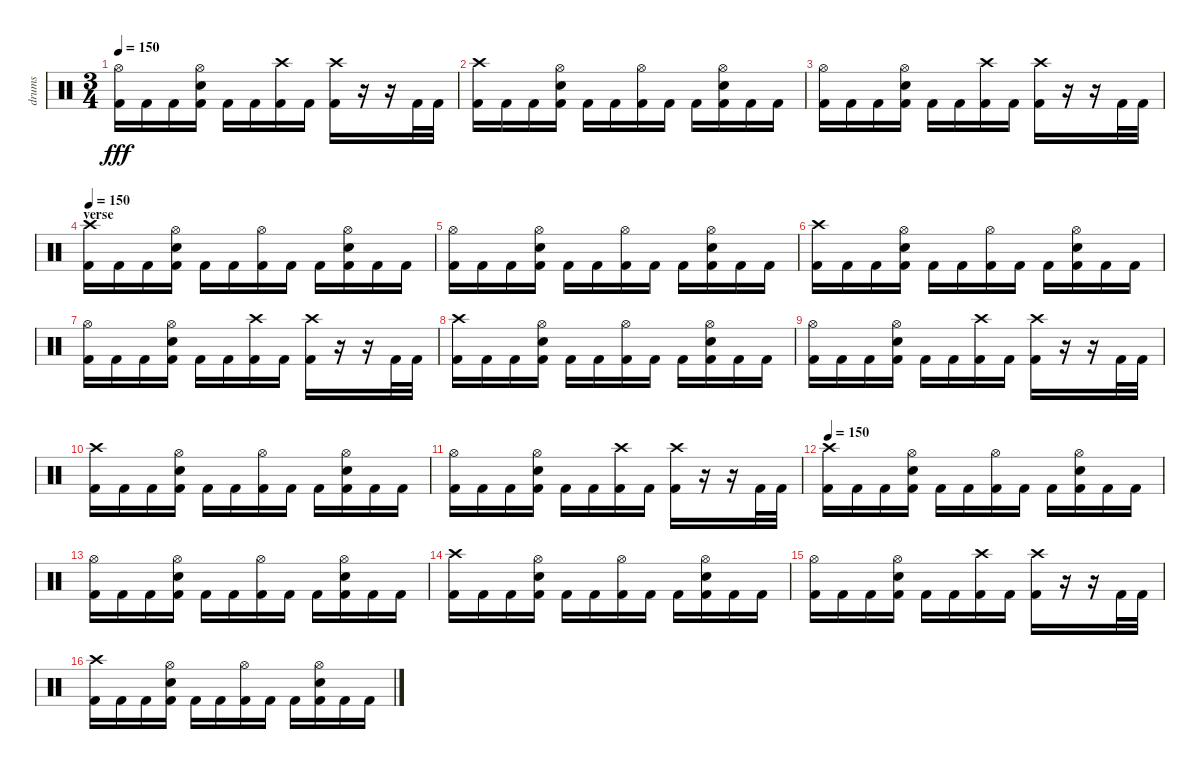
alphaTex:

\track ("drums" "drums") {instrument percussion}
\staff {score}
\articulation defaults
\ts (3 4)
\tempo 150
\clef neutral
\ks c
("Hi-Hat (open)" "Kick (hit) 2").16{dy fff} "Kick (hit) 2".16 "Kick (hit) 2".16 ("Hi-Hat (open)" "Snare (hit) 2" "Kick (hit) 2").16 "Kick (hit) 2".16 "Kick (hit) 2".16 ("Crash high (hit)" "Kick (hit) 2").16 "Kick (hit) 2".16 ("Crash high (hit)" "Kick (hit) 2").16 r.16 r.16 "Kick (hit) 2".32 "Kick (hit) 2".32 |
("Crash high (hit)" "Kick (hit) 2").16 "Kick (hit) 2".16 "Kick (hit) 2".16 ("Hi-Hat (open)" "Snare (hit) 2" "Kick (hit) 2").16 "Kick (hit) 2".16 "Kick (hit) 2".16 ("Hi-Hat (open)" "Kick (hit) 2").16 "Kick (hit) 2".16 "Kick (hit) 2".16 ("Hi-Hat (open)" "Snare (hit) 2" "Kick (hit) 2").16 "Kick (hit) 2".16 "Kick (hit) 2".16 |
("Hi-Hat (open)" "Kick (hit) 2").16 "Kick (hit) 2".16 "Kick (hit) 2".16 ("Hi-Hat (open)" "Snare (hit) 2" "Kick (hit) 2").16 "Kick (hit) 2".16 "Kick (hit) 2".16 ("Crash high (hit)" "Kick (hit) 2").16 "Kick (hit) 2".16 ("Crash high (hit)" "Kick (hit) 2").16 r.16 r.16 "Kick (hit) 2".32 "Kick (hit) 2".32 |
\section ("" "verse")
\tempo 150
("Crash high (hit)" "Kick (hit) 2").16 "Kick (hit) 2".16 "Kick (hit) 2".16 ("Hi-Hat (open)" "Snare (hit) 2" "Kick (hit) 2").16 "Kick (hit) 2".16 "Kick (hit) 2".16 ("Hi-Hat (open)" "Kick (hit) 2").16 "Kick (hit) 2".16 "Kick (hit) 2".16 ("Hi-Hat (open)" "Snare (hit) 2" "Kick (hit) 2").16 "Kick (hit) 2".16 "Kick (hit) 2".16 |
("Hi-Hat (open)" "Kick (hit) 2").16 "Kick (hit) 2".16 "Kick (hit) 2".16 ("Hi-Hat (open)" "Snare (hit) 2" "Kick (hit) 2").16 "Kick (hit) 2".16 "Kick (hit) 2".16 ("Hi-Hat (open)" "Kick (hit) 2").16 "Kick (hit) 2".16 "Kick (hit) 2".16 ("Hi-Hat (open)" "Snare (hit) 2" "Kick (hit) 2").16 "Kick (hit) 2".16 "Kick (hit) 2".16 |
("Crash high (hit)" "Kick (hit) 2").16 "Kick (hit) 2".16 "Kick (hit) 2".16 ("Hi-Hat (open)" "Snare (hit) 2" "Kick (hit) 2").16 "Kick (hit) 2".16 "Kick (hit) 2".16 ("Hi-Hat (open)" "Kick (hit) 2").16 "Kick (hit) 2".16 "Kick (hit) 2".16 ("Hi-Hat (open)" "Snare (hit) 2" "Kick (hit) 2").16 "Kick (hit) 2".16 "Kick (hit) 2".16 |
("Hi-Hat (open)" "Kick (hit) 2").16 "Kick (hit) 2".16 "Kick (hit) 2".16 ("Hi-Hat (open)" "Snare (hit) 2" "Kick (hit) 2").16 "Kick (hit) 2".16 "Kick (hit) 2".16 ("Crash high (hit)" "Kick (hit) 2").16 "Kick (hit) 2".16 ("Crash high (hit)" "Kick (hit) 2").16 r.16 r.16 "Kick (hit) 2".32 "Kick (hit) 2".32 |
("Crash high (hit)" "Kick (hit) 2").16 "Kick (hit) 2".16 "Kick (hit) 2".16 ("Hi-Hat (open)" "Snare (hit) 2" "Kick (hit) 2").16 "Kick (hit) 2".16 "Kick (hit) 2".16 ("Hi-Hat (open)" "Kick (hit) 2").16 "Kick (hit) 2".16 "Kick (hit) 2".16 ("Hi-Hat (open)" "Snare (hit) 2" "Kick (hit) 2").16 "Kick (hit) 2".16 "Kick (hit) 2".16 |
("Hi-Hat (open)" "Kick (hit) 2").16 "Kick (hit) 2".16 "Kick (hit) 2".16 ("Hi-Hat (open)" "Snare (hit) 2" "Kick (hit) 2").16 "Kick (hit) 2".16 "Kick (hit) 2".16 ("Crash high (hit)" "Kick (hit) 2").16 "Kick (hit) 2".16 ("Crash high (hit)" "Kick (hit) 2").16 r.16 r.16 "Kick (hit) 2".32 "Kick (hit) 2".32 |
("Crash high (hit)" "Kick (hit) 2").16 "Kick (hit) 2".16 "Kick (hit) 2".16 ("Hi-Hat (open)" "Snare (hit) 2" "Kick (hit) 2").16 "Kick (hit) 2".16 "Kick (hit) 2".16 ("Hi-Hat (open)" "Kick (hit) 2").16 "Kick (hit) 2".16 "Kick (hit) 2".16 ("Hi-Hat (open)" "Snare (hit) 2" "Kick (hit) 2").16 "Kick (hit) 2".16 "Kick (hit) 2".16 |
("Hi-Hat (open)" "Kick (hit) 2").16 "Kick (hit) 2".16 "Kick (hit) 2".16 ("Hi-Hat (open)" "Snare (hit) 2" "Kick (hit) 2").16 "Kick (hit) 2".16 "Kick (hit) 2".16 ("Crash high (hit)" "Kick (hit) 2").16 "Kick (hit) 2".16 ("Crash high (hit)" "Kick (hit) 2").16 r.16 r.16 "Kick (hit) 2".32 "Kick (hit) 2".32 |
\tempo 150
("Crash high (hit)" "Kick (hit) 2").16 "Kick (hit) 2".16 "Kick (hit) 2".16 ("Hi-Hat (open)" "Snare (hit) 2" "Kick (hit) 2").16 "Kick (hit) 2".16 "Kick (hit) 2".16 ("Hi-Hat (open)" "Kick (hit) 2").16 "Kick (hit) 2".16 "Kick (hit) 2".16 ("Hi-Hat (open)" "Snare (hit) 2" "Kick (hit) 2").16 "Kick (hit) 2".16 "Kick (hit) 2".16 |
("Hi-Hat (open)" "Kick (hit) 2").16 "Kick (hit) 2".16 "Kick (hit) 2".16 ("Hi-Hat (open)" "Snare (hit) 2" "Kick (hit) 2").16 "Kick (hit) 2".16 "Kick (hit) 2".16 ("Hi-Hat (open)" "Kick (hit) 2").16 "Kick (hit) 2".16 "Kick (hit) 2".16 ("Hi-Hat (open)" "Snare (hit) 2" "Kick (hit) 2").16 "Kick (hit) 2".16 "Kick (hit) 2".16 |
("Crash high (hit)" "Kick (hit) 2").16 "Kick (hit) 2".16 "Kick (hit) 2".16 ("Hi-Hat (open)" "Snare (hit) 2" "Kick (hit) 2").16 "Kick (hit) 2".16 "Kick (hit) 2".16 ("Hi-Hat (open)" "Kick (hit) 2").16 "Kick (hit) 2".16 "Kick (hit) 2".16 ("Hi-Hat (open)" "Snare (hit) 2" "Kick (hit) 2").16 "Kick (hit) 2".16 "Kick (hit) 2".16 |
("Hi-Hat (open)" "Kick (hit) 2").16 "Kick (hit) 2".16 "Kick (hit) 2".16 ("Hi-Hat (open)" "Snare (hit) 2" "Kick (hit) 2").16 "Kick (hit) 2".16 "Kick (hit) 2".16 ("Crash high (hit)" "Kick (hit) 2").16 "Kick (hit) 2".16 ("Crash high (hit)" "Kick (hit) 2").16 r.16 r.16 "Kick (hit) 2".32 "Kick (hit) 2".32 |
("Crash high (hit)" "Kick (hit) 2").16 "Kick (hit) 2".16 "Kick (hit) 2".16 ("Hi-Hat (open)" "Snare (hit) 2" "Kick (hit) 2").16 "Kick (hit) 2".16 "Kick (hit) 2".16 ("Hi-Hat (open)" "Kick (hit) 2").16 "Kick (hit) 2".16 "Kick (hit) 2".16 ("Hi-Hat (open)" "Snare (hit) 2" "Kick (hit) 2").16 "Kick (hit) 2".16 "Kick (hit) 2".16
